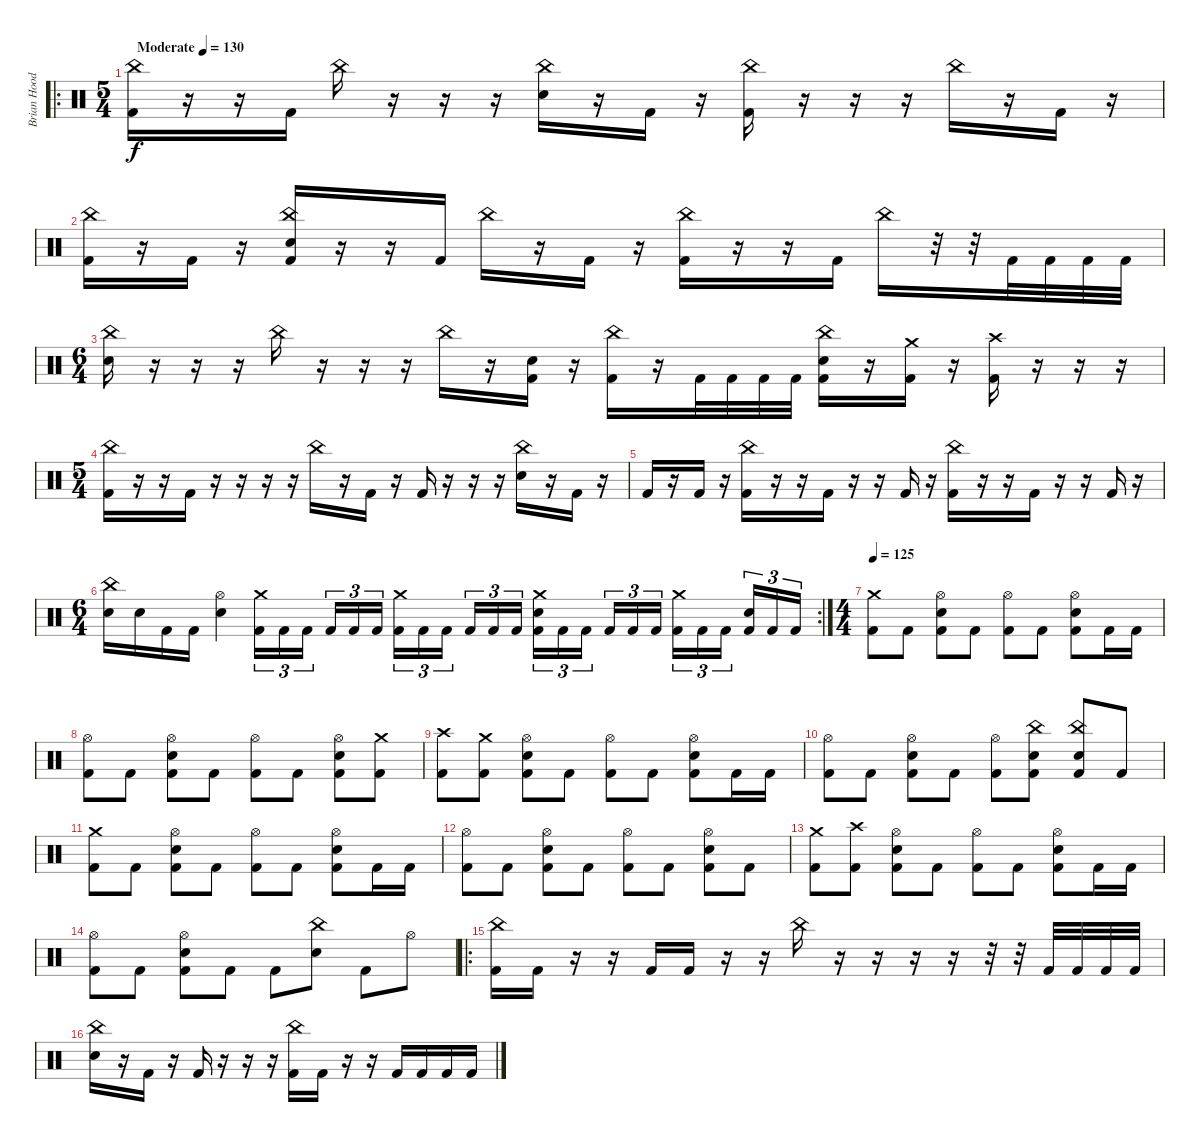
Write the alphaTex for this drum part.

\track ("Brian Hood " "Brian Hood") {instrument percussion}
\staff {score}
\articulation defaults
\ro
\ts (5 4)
\tempo (130 "Moderate")
\clef neutral
\ks c
("Kick (hit) 2" "China (hit)").16{dy f} r.16 r.16 "Kick (hit) 2".16 "China (hit)".16 r.16 r.16 r.16 ("Electric Snare (hit)" "China (hit)").16 r.16 "Kick (hit) 2".16 r.16 ("Kick (hit) 2" "China (hit)").16 r.16 r.16 r.16 "China (hit)".16 r.16 "Kick (hit) 2".16 r.16 |
("Kick (hit) 2" "China (hit)").16 r.16 "Kick (hit) 2".16 r.16 ("Kick (hit) 2" "Electric Snare (hit)" "China (hit)").16 r.16 r.16 "Kick (hit) 2".16 "China (hit)".16 r.16 "Kick (hit) 2".16 r.16 ("Kick (hit) 2" "China (hit)").16 r.16 r.16 "Kick (hit) 2".16 "China (hit)".16 r.32 r.32 "Kick (hit) 2".32 "Kick (hit) 2".32 "Kick (hit) 2".32 "Kick (hit) 2".32 |
\ts (6 4)
("Electric Snare (hit)" "China (hit)").16 r.16 r.16 r.16 "China (hit)".16 r.16 r.16 r.16 "China (hit)".16 r.16 ("Kick (hit) 2" "Electric Snare (hit)").16 r.16 ("Kick (hit) 2" "China (hit)").16 r.16 "Kick (hit) 2".32 "Kick (hit) 2".32 "Kick (hit) 2".32 "Kick (hit) 2".32 ("Kick (hit) 2" "Electric Snare (hit)" "China (hit)").16 r.16 ("Kick (hit) 2" "Crash medium (hit)").16 r.16 ("Kick (hit) 2" "Crash high (hit)").16 r.16 r.16 r.16 |
\ts (5 4)
("Kick (hit) 2" "China (hit)").16 r.16 r.16 "Kick (hit) 2".16 r.16 r.16 r.16 r.16 "China (hit)".16 r.16 "Kick (hit) 2".16 r.16 "Kick (hit) 2".16 r.16 r.16 r.16 ("Electric Snare (hit)" "China (hit)").16 r.16 "Kick (hit) 2".16 r.16 |
"Kick (hit) 2".16 r.16 "Kick (hit) 2".16 r.16 ("Kick (hit) 2" "China (hit)").16 r.16 r.16 "Kick (hit) 2".16 r.16 r.16 "Kick (hit) 2".16 r.16 ("Kick (hit) 2" "China (hit)").16 r.16 r.16 "Kick (hit) 2".16 r.16 r.16 "Kick (hit) 2".16 r.16 |
\rc 2
\ts (6 4)
("Electric Snare (hit)" "China (hit)").16 "Electric Snare (hit)".16 "Kick (hit) 2".16 "Kick (hit) 2".16 ("Electric Snare (hit)" "Hi-Hat (open)").4 ("Kick (hit) 2" "Crash medium (hit)").16{tu (3 2)} "Kick (hit) 2".16{tu (3 2)} "Kick (hit) 2".16{tu (3 2) beam splitsecondary} "Kick (hit) 2".16{tu (3 2)} "Kick (hit) 2".16{tu (3 2)} "Kick (hit) 2".16{tu (3 2)} ("Kick (hit) 2" "Crash medium (hit)").16{tu (3 2)} "Kick (hit) 2".16{tu (3 2)} "Kick (hit) 2".16{tu (3 2) beam splitsecondary} "Kick (hit) 2".16{tu (3 2)} "Kick (hit) 2".16{tu (3 2)} "Kick (hit) 2".16{tu (3 2) beam splitsecondary} ("Kick (hit) 2" "Electric Snare (hit)" "Crash medium (hit)").16{tu (3 2)} "Kick (hit) 2".16{tu (3 2)} "Kick (hit) 2".16{tu (3 2) beam splitsecondary} "Kick (hit) 2".16{tu (3 2)} "Kick (hit) 2".16{tu (3 2)} "Kick (hit) 2".16{tu (3 2) beam splitsecondary} ("Kick (hit) 2" "Crash medium (hit)").16{tu (3 2)} "Kick (hit) 2".16{tu (3 2)} "Kick (hit) 2".16{tu (3 2) beam splitsecondary} ("Kick (hit) 2" "Electric Snare (hit)").16{tu (3 2)} "Kick (hit) 2".16{tu (3 2)} "Kick (hit) 2".16{tu (3 2)} |
\ts (4 4)
\tempo 125
("Kick (hit) 2" "Crash medium (hit)").8 "Kick (hit) 2".8 ("Kick (hit) 2" "Electric Snare (hit)" "Hi-Hat (open)").8 "Kick (hit) 2".8 ("Kick (hit) 2" "Hi-Hat (open)").8 "Kick (hit) 2".8 ("Kick (hit) 2" "Electric Snare (hit)" "Hi-Hat (open)").8 "Kick (hit) 2".16 "Kick (hit) 2".16 |
("Kick (hit) 2" "Hi-Hat (open)").8 "Kick (hit) 2".8 ("Kick (hit) 2" "Electric Snare (hit)" "Hi-Hat (open)").8 "Kick (hit) 2".8 ("Kick (hit) 2" "Hi-Hat (open)").8 "Kick (hit) 2".8 ("Kick (hit) 2" "Electric Snare (hit)" "Hi-Hat (open)").8 ("Kick (hit) 2" "Crash medium (hit)").8 |
("Kick (hit) 2" "Crash high (hit)").8 ("Kick (hit) 2" "Crash medium (hit)").8 ("Kick (hit) 2" "Electric Snare (hit)" "Hi-Hat (open)").8 "Kick (hit) 2".8 ("Kick (hit) 2" "Hi-Hat (open)").8 "Kick (hit) 2".8 ("Kick (hit) 2" "Electric Snare (hit)" "Hi-Hat (open)").8 "Kick (hit) 2".16 "Kick (hit) 2".16 |
("Kick (hit) 2" "Hi-Hat (open)").8 "Kick (hit) 2".8 ("Kick (hit) 2" "Electric Snare (hit)" "Hi-Hat (open)").8 "Kick (hit) 2".8 ("Kick (hit) 2" "Hi-Hat (open)").8 ("Kick (hit) 2" "Electric Snare (hit)" "China (hit)").8 ("Kick (hit) 2" "Electric Snare (hit)" "China (hit)").8 "Kick (hit) 2".8 |
("Kick (hit) 2" "Crash medium (hit)").8 "Kick (hit) 2".8 ("Kick (hit) 2" "Electric Snare (hit)" "Hi-Hat (open)").8 "Kick (hit) 2".8 ("Kick (hit) 2" "Hi-Hat (open)").8 "Kick (hit) 2".8 ("Kick (hit) 2" "Electric Snare (hit)" "Hi-Hat (open)").8 "Kick (hit) 2".16 "Kick (hit) 2".16 |
("Kick (hit) 2" "Hi-Hat (open)").8 "Kick (hit) 2".8 ("Kick (hit) 2" "Electric Snare (hit)" "Hi-Hat (open)").8 "Kick (hit) 2".8 ("Kick (hit) 2" "Hi-Hat (open)").8 "Kick (hit) 2".8 ("Kick (hit) 2" "Electric Snare (hit)" "Hi-Hat (open)").8 "Kick (hit) 2".8 |
("Kick (hit) 2" "Crash medium (hit)").8 ("Kick (hit) 2" "Crash high (hit)").8 ("Kick (hit) 2" "Electric Snare (hit)" "Hi-Hat (open)").8 "Kick (hit) 2".8 ("Kick (hit) 2" "Hi-Hat (open)").8 "Kick (hit) 2".8 ("Kick (hit) 2" "Electric Snare (hit)" "Hi-Hat (open)").8 "Kick (hit) 2".16 "Kick (hit) 2".16 |
("Kick (hit) 2" "Hi-Hat (open)").8 "Kick (hit) 2".8 ("Kick (hit) 2" "Electric Snare (hit)" "Hi-Hat (open)").8 "Kick (hit) 2".8 "Kick (hit) 2".8 ("Electric Snare (hit)" "China (hit)").8 "Kick (hit) 2".8 "Hi-Hat (open)".8 |
\ro
("Kick (hit) 2" "China (hit)").16 "Kick (hit) 2".16 r.16 r.16 "Kick (hit) 2".16 "Kick (hit) 2".16 r.16 r.16 "China (hit)".16 r.16 r.16 r.16 r.16 r.32 r.32 "Kick (hit) 2".32 "Kick (hit) 2".32 "Kick (hit) 2".32 "Kick (hit) 2".32 |
("Electric Snare (hit)" "China (hit)").16 r.16 "Kick (hit) 2".16 r.16 "Kick (hit) 2".16 r.16 r.16 r.16 ("Kick (hit) 2" "China (hit)").16 "Kick (hit) 2".16 r.16 r.16 "Kick (hit) 2".16 "Kick (hit) 2".16 "Kick (hit) 2".16 "Kick (hit) 2".16
